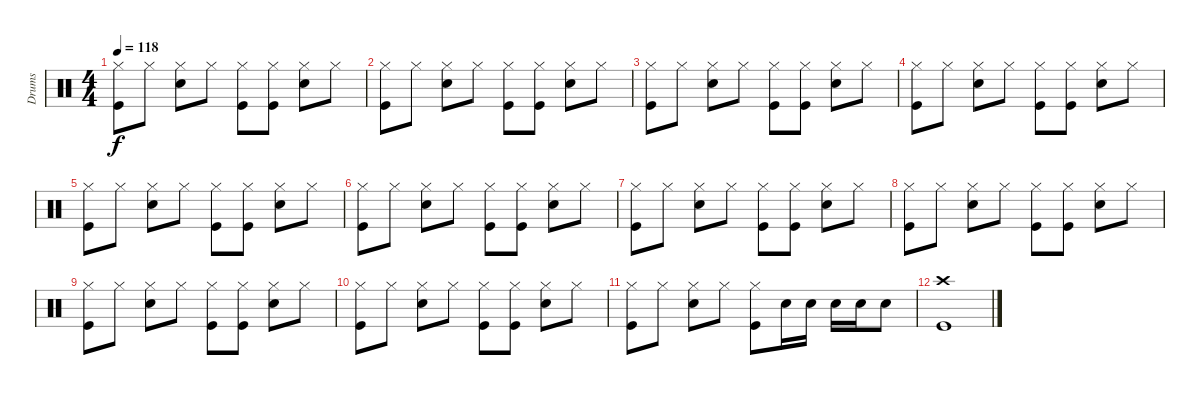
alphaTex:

\track ("Drums" "Drums") {instrument percussion}
\staff {score}
\articulation defaults
\ts (4 4)
\tempo 118
\clef neutral
\ks c
("Hi-Hat (closed)" "Kick (hit)").8{dy f} "Hi-Hat (closed)".8 ("Hi-Hat (closed)" "Electric Snare (hit)").8 "Hi-Hat (closed)".8 ("Hi-Hat (closed)" "Kick (hit)").8 ("Hi-Hat (closed)" "Kick (hit)").8 ("Hi-Hat (closed)" "Electric Snare (hit)").8 "Hi-Hat (closed)".8 |
("Hi-Hat (closed)" "Kick (hit)").8 "Hi-Hat (closed)".8 ("Hi-Hat (closed)" "Electric Snare (hit)").8 "Hi-Hat (closed)".8 ("Hi-Hat (closed)" "Kick (hit)").8 ("Hi-Hat (closed)" "Kick (hit)").8 ("Hi-Hat (closed)" "Electric Snare (hit)").8 "Hi-Hat (closed)".8 |
("Hi-Hat (closed)" "Kick (hit)").8 "Hi-Hat (closed)".8 ("Hi-Hat (closed)" "Electric Snare (hit)").8 "Hi-Hat (closed)".8 ("Hi-Hat (closed)" "Kick (hit)").8 ("Hi-Hat (closed)" "Kick (hit)").8 ("Hi-Hat (closed)" "Electric Snare (hit)").8 "Hi-Hat (closed)".8 |
("Hi-Hat (closed)" "Kick (hit)").8 "Hi-Hat (closed)".8 ("Hi-Hat (closed)" "Electric Snare (hit)").8 "Hi-Hat (closed)".8 ("Hi-Hat (closed)" "Kick (hit)").8 ("Hi-Hat (closed)" "Kick (hit)").8 ("Hi-Hat (closed)" "Electric Snare (hit)").8 "Hi-Hat (closed)".8 |
("Hi-Hat (closed)" "Kick (hit)").8 "Hi-Hat (closed)".8 ("Hi-Hat (closed)" "Electric Snare (hit)").8 "Hi-Hat (closed)".8 ("Hi-Hat (closed)" "Kick (hit)").8 ("Hi-Hat (closed)" "Kick (hit)").8 ("Hi-Hat (closed)" "Electric Snare (hit)").8 "Hi-Hat (closed)".8 |
("Hi-Hat (closed)" "Kick (hit)").8 "Hi-Hat (closed)".8 ("Hi-Hat (closed)" "Electric Snare (hit)").8 "Hi-Hat (closed)".8 ("Hi-Hat (closed)" "Kick (hit)").8 ("Hi-Hat (closed)" "Kick (hit)").8 ("Hi-Hat (closed)" "Electric Snare (hit)").8 "Hi-Hat (closed)".8 |
("Hi-Hat (closed)" "Kick (hit)").8 "Hi-Hat (closed)".8 ("Hi-Hat (closed)" "Electric Snare (hit)").8 "Hi-Hat (closed)".8 ("Hi-Hat (closed)" "Kick (hit)").8 ("Hi-Hat (closed)" "Kick (hit)").8 ("Hi-Hat (closed)" "Electric Snare (hit)").8 "Hi-Hat (closed)".8 |
("Hi-Hat (closed)" "Kick (hit)").8 "Hi-Hat (closed)".8 ("Hi-Hat (closed)" "Electric Snare (hit)").8 "Hi-Hat (closed)".8 ("Hi-Hat (closed)" "Kick (hit)").8 ("Hi-Hat (closed)" "Kick (hit)").8 ("Hi-Hat (closed)" "Electric Snare (hit)").8 "Hi-Hat (closed)".8 |
("Hi-Hat (closed)" "Kick (hit)").8 "Hi-Hat (closed)".8 ("Hi-Hat (closed)" "Electric Snare (hit)").8 "Hi-Hat (closed)".8 ("Hi-Hat (closed)" "Kick (hit)").8 ("Hi-Hat (closed)" "Kick (hit)").8 ("Hi-Hat (closed)" "Electric Snare (hit)").8 "Hi-Hat (closed)".8 |
("Hi-Hat (closed)" "Kick (hit)").8 "Hi-Hat (closed)".8 ("Hi-Hat (closed)" "Electric Snare (hit)").8 "Hi-Hat (closed)".8 ("Hi-Hat (closed)" "Kick (hit)").8 ("Hi-Hat (closed)" "Kick (hit)").8 ("Hi-Hat (closed)" "Electric Snare (hit)").8 "Hi-Hat (closed)".8 |
("Hi-Hat (closed)" "Kick (hit)").8 "Hi-Hat (closed)".8 ("Hi-Hat (closed)" "Electric Snare (hit)").8 "Hi-Hat (closed)".8 ("Hi-Hat (closed)" "Kick (hit)").8 "Electric Snare (hit)".16 "Electric Snare (hit)".16 "Electric Snare (hit)".16 "Electric Snare (hit)".16 "Electric Snare (hit)".8 |
("Crash high (hit)" "Kick (hit)").1
